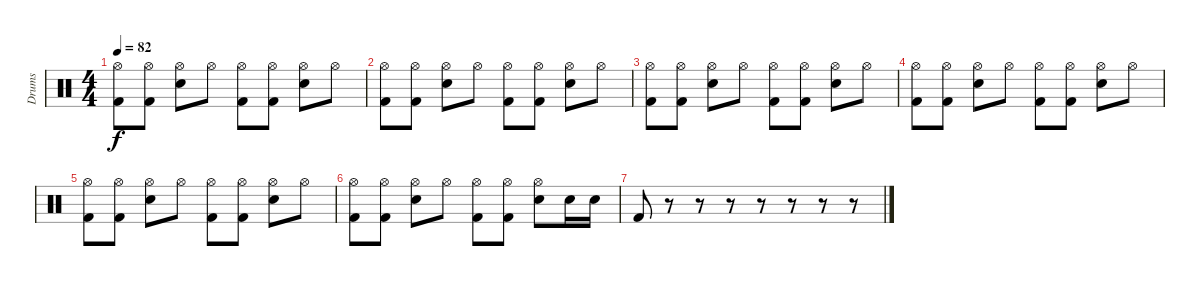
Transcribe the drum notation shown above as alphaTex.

\track ("Drums" "Drums") {instrument percussion}
\staff {score}
\articulation defaults
\ts (4 4)
\tempo 82
\clef neutral
\ks c
("Hi-Hat (open)" "Kick (hit) 2").8{dy f} ("Hi-Hat (open)" "Kick (hit) 2").8 ("Hi-Hat (open)" "Electric Snare (hit)").8 "Hi-Hat (open)".8 ("Hi-Hat (open)" "Kick (hit) 2").8 ("Hi-Hat (open)" "Kick (hit) 2").8 ("Hi-Hat (open)" "Electric Snare (hit)").8 "Hi-Hat (open)".8 |
("Hi-Hat (open)" "Kick (hit) 2").8 ("Hi-Hat (open)" "Kick (hit) 2").8 ("Hi-Hat (open)" "Electric Snare (hit)").8 "Hi-Hat (open)".8 ("Hi-Hat (open)" "Kick (hit) 2").8 ("Hi-Hat (open)" "Kick (hit) 2").8 ("Hi-Hat (open)" "Electric Snare (hit)").8 "Hi-Hat (open)".8 |
("Hi-Hat (open)" "Kick (hit) 2").8 ("Hi-Hat (open)" "Kick (hit) 2").8 ("Hi-Hat (open)" "Electric Snare (hit)").8 "Hi-Hat (open)".8 ("Hi-Hat (open)" "Kick (hit) 2").8 ("Hi-Hat (open)" "Kick (hit) 2").8 ("Hi-Hat (open)" "Electric Snare (hit)").8 "Hi-Hat (open)".8 |
("Hi-Hat (open)" "Kick (hit) 2").8 ("Hi-Hat (open)" "Kick (hit) 2").8 ("Hi-Hat (open)" "Electric Snare (hit)").8 "Hi-Hat (open)".8 ("Hi-Hat (open)" "Kick (hit) 2").8 ("Hi-Hat (open)" "Kick (hit) 2").8 ("Hi-Hat (open)" "Electric Snare (hit)").8 "Hi-Hat (open)".8 |
("Hi-Hat (open)" "Kick (hit) 2").8 ("Hi-Hat (open)" "Kick (hit) 2").8 ("Hi-Hat (open)" "Electric Snare (hit)").8 "Hi-Hat (open)".8 ("Hi-Hat (open)" "Kick (hit) 2").8 ("Hi-Hat (open)" "Kick (hit) 2").8 ("Hi-Hat (open)" "Electric Snare (hit)").8 "Hi-Hat (open)".8 |
("Hi-Hat (open)" "Kick (hit) 2").8 ("Hi-Hat (open)" "Kick (hit) 2").8 ("Hi-Hat (open)" "Electric Snare (hit)").8 "Hi-Hat (open)".8 ("Hi-Hat (open)" "Kick (hit) 2").8 ("Hi-Hat (open)" "Kick (hit) 2").8 ("Hi-Hat (open)" "Electric Snare (hit)").8 "Electric Snare (hit)".16 "Electric Snare (hit)".16 |
"Kick (hit) 2".8 r.8 r.8 r.8 r.8 r.8 r.8 r.8
